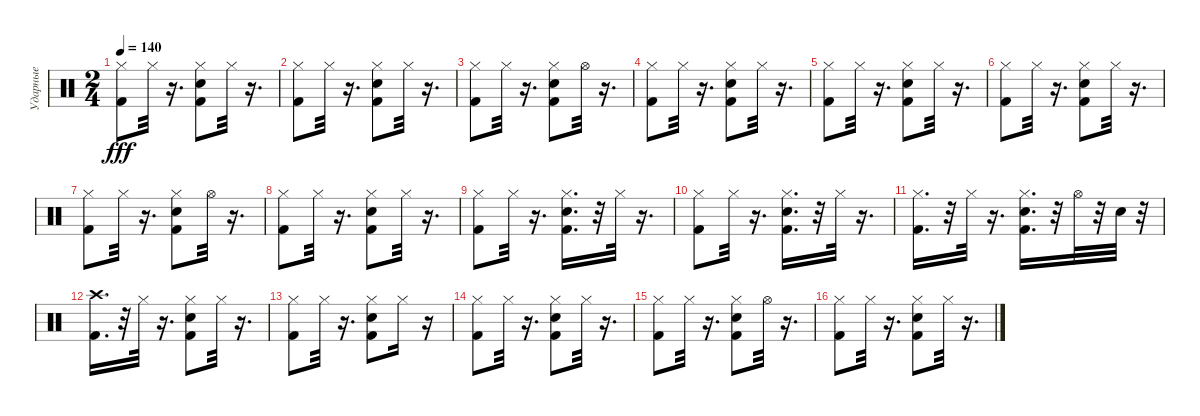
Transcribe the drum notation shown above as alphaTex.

\track ("Ударные" "Ударные") {instrument percussion}
\staff {score}
\articulation defaults
\ts (2 4)
\tempo 140
\clef neutral
\ks c
("Kick (hit) 2" "Hi-Hat (closed)").8{dy fff} "Hi-Hat (closed)".32 r.16{d} ("Snare (hit) 2" "Kick (hit) 2" "Hi-Hat (closed)").8 "Hi-Hat (closed)".32 r.16{d} |
("Kick (hit) 2" "Hi-Hat (closed)").8 "Hi-Hat (closed)".32 r.16{d} ("Snare (hit) 2" "Kick (hit) 2" "Hi-Hat (closed)").8 "Hi-Hat (closed)".32 r.16{d} |
("Kick (hit) 2" "Hi-Hat (closed)").8 "Hi-Hat (closed)".32 r.16{d} ("Hi-Hat (closed)" "Snare (hit) 2" "Kick (hit) 2").8 "Hi-Hat (open)".32 r.16{d} |
("Kick (hit) 2" "Hi-Hat (closed)").8 "Hi-Hat (closed)".32 r.16{d} ("Snare (hit) 2" "Kick (hit) 2" "Hi-Hat (closed)").8 "Hi-Hat (closed)".32 r.16{d} |
("Kick (hit) 2" "Hi-Hat (closed)").8 "Hi-Hat (closed)".32 r.16{d} ("Snare (hit) 2" "Kick (hit) 2" "Hi-Hat (closed)").8 "Hi-Hat (closed)".32 r.16{d} |
("Kick (hit) 2" "Hi-Hat (closed)").8 "Hi-Hat (closed)".32 r.16{d} ("Snare (hit) 2" "Kick (hit) 2" "Hi-Hat (closed)").8 "Hi-Hat (closed)".32 r.16{d} |
("Kick (hit) 2" "Hi-Hat (closed)").8 "Hi-Hat (closed)".32 r.16{d} ("Snare (hit) 2" "Kick (hit) 2" "Hi-Hat (closed)").8 "Hi-Hat (open)".32 r.16{d} |
("Kick (hit) 2" "Hi-Hat (closed)").8 "Hi-Hat (closed)".32 r.16{d} ("Snare (hit) 2" "Kick (hit) 2" "Hi-Hat (closed)").8 "Hi-Hat (closed)".32 r.16{d} |
("Kick (hit) 2" "Hi-Hat (closed)").8 "Hi-Hat (closed)".32 r.16{d} ("Snare (hit) 2" "Kick (hit) 2" "Hi-Hat (closed)").16{d} r.32 "Hi-Hat (closed)".32 r.16{d} |
("Kick (hit) 2" "Hi-Hat (closed)").8 "Hi-Hat (closed)".32 r.16{d} ("Snare (hit) 2" "Kick (hit) 2" "Hi-Hat (closed)").16{d} r.32 "Hi-Hat (closed)".32 r.16{d} |
("Kick (hit) 2" "Hi-Hat (closed)").16{d} r.32 "Hi-Hat (closed)".32 r.16{d} ("Snare (hit) 2" "Kick (hit) 2" "Hi-Hat (closed)").16{d} r.32 "Hi-Hat (open)".32 r.32 "Snare (hit) 2".32 r.32 |
("Kick (hit) 2" "Crash high (hit)").16{d} r.32 "Hi-Hat (closed)".32 r.16{d} ("Snare (hit) 2" "Hi-Hat (closed)" "Kick (hit) 2").8 "Hi-Hat (closed)".32 r.16{d} |
("Kick (hit) 2" "Hi-Hat (closed)").8 "Hi-Hat (closed)".32 r.16{d} ("Snare (hit) 2" "Kick (hit) 2" "Hi-Hat (closed)").8 "Hi-Hat (closed)".16 r.16 |
("Kick (hit) 2" "Hi-Hat (closed)").8 "Hi-Hat (closed)".32 r.16{d} ("Snare (hit) 2" "Kick (hit) 2" "Hi-Hat (closed)").8 "Hi-Hat (closed)".32 r.16{d} |
("Kick (hit) 2" "Hi-Hat (closed)").8 "Hi-Hat (closed)".32 r.16{d} ("Kick (hit) 2" "Snare (hit) 2" "Hi-Hat (closed)").8 "Hi-Hat (open)".32 r.16{d} |
("Kick (hit) 2" "Hi-Hat (closed)").8 "Hi-Hat (closed)".32 r.16{d} ("Hi-Hat (closed)" "Snare (hit) 2" "Kick (hit) 2").8 "Hi-Hat (closed)".32 r.16{d}
